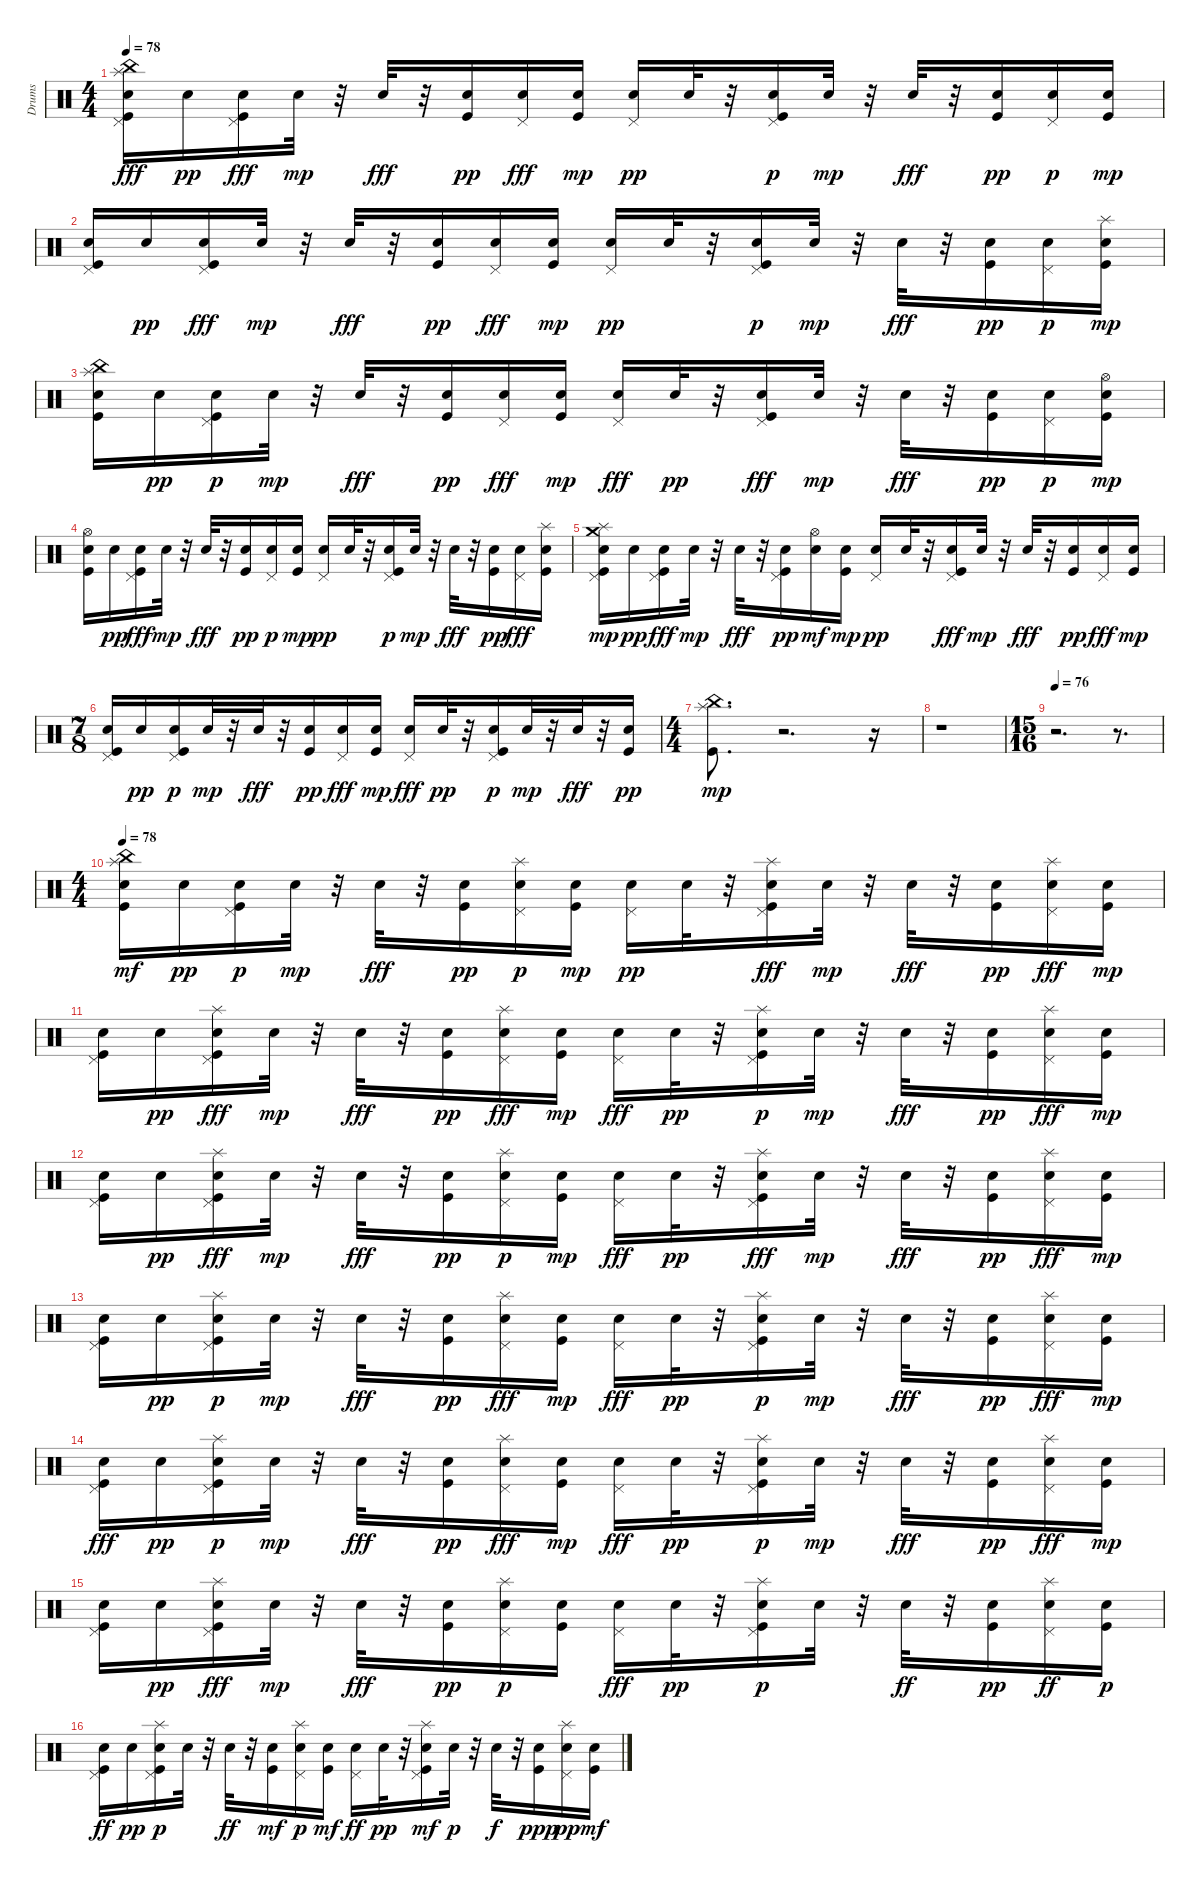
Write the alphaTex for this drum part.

\track ("Drums" "Drums") {instrument percussion}
\staff {score}
\articulation defaults
\ts (4 4)
\tempo 78
\clef neutral
\ks c
("Splash (hit)" "China (hit)" "Kick (hit)" "Snare (hit) 2" "Pedal Hi-Hat (hit)").16{dy fff} "Snare (hit) 2".16{dy pp} ("Kick (hit)" "Snare (hit) 2" "Pedal Hi-Hat (hit)").16{dy fff} "Snare (hit) 2".32{dy mp} r.32 "Snare (hit) 2".32{dy fff} r.32 ("Snare (hit) 2" "Kick (hit)").16{dy pp} ("Snare (hit) 2" "Pedal Hi-Hat (hit)").16{dy fff} ("Snare (hit) 2" "Kick (hit)").16{dy mp} ("Pedal Hi-Hat (hit)" "Snare (hit) 2").16{dy pp} "Snare (hit) 2".32 r.32 ("Pedal Hi-Hat (hit)" "Snare (hit) 2" "Kick (hit)").16{dy p} "Snare (hit) 2".32{dy mp} r.32 "Snare (hit) 2".32{dy fff} r.32 ("Kick (hit)" "Snare (hit) 2").16{dy pp} ("Pedal Hi-Hat (hit)" "Snare (hit) 2").16{dy p} ("Kick (hit)" "Snare (hit) 2").16{dy mp} |
("Pedal Hi-Hat (hit)" "Snare (hit) 2" "Kick (hit)").16 "Snare (hit) 2".16{dy pp} ("Snare (hit) 2" "Pedal Hi-Hat (hit)" "Kick (hit)").16{dy fff} "Snare (hit) 2".32{dy mp} r.32 "Snare (hit) 2".32{dy fff} r.32 ("Kick (hit)" "Snare (hit) 2").16{dy pp} ("Snare (hit) 2" "Pedal Hi-Hat (hit)").16{dy fff} ("Kick (hit)" "Snare (hit) 2").16{dy mp} ("Pedal Hi-Hat (hit)" "Snare (hit) 2").16{dy pp} "Snare (hit) 2".32 r.32 ("Pedal Hi-Hat (hit)" "Snare (hit) 2" "Kick (hit)").16{dy p} "Snare (hit) 2".32{dy mp} r.32 "Snare (hit) 2".32{dy fff} r.32 ("Snare (hit) 2" "Kick (hit)").16{dy pp} ("Pedal Hi-Hat (hit)" "Snare (hit) 2").16{dy p} ("Splash (hit)" "Kick (hit)" "Snare (hit) 2").16{dy mp} |
("Kick (hit)" "Splash (hit)" "Snare (hit) 2" "China (hit)").16 "Snare (hit) 2".16{dy pp} ("Kick (hit)" "Pedal Hi-Hat (hit)" "Snare (hit) 2").16{dy p} "Snare (hit) 2".32{dy mp} r.32 "Snare (hit) 2".32{dy fff} r.32 ("Kick (hit)" "Snare (hit) 2").16{dy pp} ("Snare (hit) 2" "Pedal Hi-Hat (hit)").16{dy fff} ("Kick (hit)" "Snare (hit) 2").16{dy mp} ("Snare (hit) 2" "Pedal Hi-Hat (hit)").16{dy fff} "Snare (hit) 2".32{dy pp} r.32 ("Kick (hit)" "Snare (hit) 2" "Pedal Hi-Hat (hit)").16{dy fff} "Snare (hit) 2".32{dy mp} r.32 "Snare (hit) 2".32{dy fff} r.32 ("Kick (hit)" "Snare (hit) 2").16{dy pp} ("Snare (hit) 2" "Pedal Hi-Hat (hit)").16{dy p} ("Hi-Hat (open)" "Kick (hit)" "Snare (hit) 2").16{dy mp} |
("Hi-Hat (open)" "Snare (hit) 2" "Kick (hit)").16 "Snare (hit) 2".16{dy pp} ("Snare (hit) 2" "Kick (hit)" "Pedal Hi-Hat (hit)").16{dy fff} "Snare (hit) 2".32{dy mp} r.32 "Snare (hit) 2".32{dy fff} r.32 ("Snare (hit) 2" "Kick (hit)").16{dy pp} ("Pedal Hi-Hat (hit)" "Snare (hit) 2").16{dy p} ("Snare (hit) 2" "Kick (hit)").16{dy mp} ("Pedal Hi-Hat (hit)" "Snare (hit) 2").16{dy pp} "Snare (hit) 2".32 r.32 ("Pedal Hi-Hat (hit)" "Kick (hit)" "Snare (hit) 2").16{dy p} "Snare (hit) 2".32{dy mp} r.32 "Snare (hit) 2".32{dy fff} r.32 ("Kick (hit)" "Snare (hit) 2").16{dy pp} ("Snare (hit) 2" "Pedal Hi-Hat (hit)").16{dy fff} ("Kick (hit)" "Snare (hit) 2" "Splash (hit)").16 |
("Kick (hit)" "Pedal Hi-Hat (hit)" "Splash (hit)" "Snare (hit) 2" "Crash medium (hit)").16{dy mp} "Snare (hit) 2".16{dy pp} ("Snare (hit) 2" "Kick (hit)" "Pedal Hi-Hat (hit)").16{dy fff} "Snare (hit) 2".32{dy mp} r.32 "Snare (hit) 2".32{dy fff} r.32 ("Kick (hit)" "Snare (hit) 2" "Pedal Hi-Hat (hit)").16{dy pp} ("Snare (hit) 2" "Hi-Hat (open)").16{dy mf} ("Kick (hit)" "Snare (hit) 2").16{dy mp} ("Pedal Hi-Hat (hit)" "Snare (hit) 2").16{dy pp} "Snare (hit) 2".32 r.32 ("Snare (hit) 2" "Kick (hit)" "Pedal Hi-Hat (hit)").16{dy fff} "Snare (hit) 2".32{dy mp} r.32 "Snare (hit) 2".32{dy fff} r.32 ("Kick (hit)" "Snare (hit) 2").16{dy pp} ("Snare (hit) 2" "Pedal Hi-Hat (hit)").16{dy fff} ("Kick (hit)" "Snare (hit) 2").16{dy mp} |
\ts (7 8)
("Pedal Hi-Hat (hit)" "Kick (hit)" "Snare (hit) 2").16 "Snare (hit) 2".16{dy pp} ("Pedal Hi-Hat (hit)" "Snare (hit) 2" "Kick (hit)").16{dy p} "Snare (hit) 2".32{dy mp} r.32 "Snare (hit) 2".32{dy fff} r.32 ("Kick (hit)" "Snare (hit) 2").16{dy pp} ("Snare (hit) 2" "Pedal Hi-Hat (hit)").16{dy fff} ("Kick (hit)" "Snare (hit) 2").16{dy mp} ("Snare (hit) 2" "Pedal Hi-Hat (hit)").16{dy fff} "Snare (hit) 2".32{dy pp} r.32 ("Kick (hit)" "Pedal Hi-Hat (hit)" "Snare (hit) 2").16{dy p} "Snare (hit) 2".32{dy mp} r.32 "Snare (hit) 2".32{dy fff} r.32 ("Snare (hit) 2" "Kick (hit)").16{dy pp} |
\ts (4 4)
("Splash (hit)" "Kick (hit)" "China (hit)").8{d dy mp} r.2{d} r.16 |
r.1 |
\ts (15 16)
\tempo 76
r.2{d} r.8{d} |
\ts (4 4)
\tempo 78
("China (hit)" "Snare (hit) 2" "Kick (hit)" "Splash (hit)").16{dy mf} "Snare (hit) 2".16{dy pp} ("Pedal Hi-Hat (hit)" "Kick (hit)" "Snare (hit) 2").16{dy p} "Snare (hit) 2".32{dy mp} r.32 "Snare (hit) 2".32{dy fff} r.32 ("Kick (hit)" "Snare (hit) 2").16{dy pp} ("Splash (hit)" "Pedal Hi-Hat (hit)" "Snare (hit) 2").16{dy p} ("Snare (hit) 2" "Kick (hit)").16{dy mp} ("Pedal Hi-Hat (hit)" "Snare (hit) 2").16{dy pp} "Snare (hit) 2".32 r.32 ("Splash (hit)" "Snare (hit) 2" "Pedal Hi-Hat (hit)" "Kick (hit)").16{dy fff} "Snare (hit) 2".32{dy mp} r.32 "Snare (hit) 2".32{dy fff} r.32 ("Snare (hit) 2" "Kick (hit)").16{dy pp} ("Splash (hit)" "Snare (hit) 2" "Pedal Hi-Hat (hit)").16{dy fff} ("Kick (hit)" "Snare (hit) 2").16{dy mp} |
("Kick (hit)" "Pedal Hi-Hat (hit)" "Snare (hit) 2").16 "Snare (hit) 2".16{dy pp} ("Splash (hit)" "Kick (hit)" "Snare (hit) 2" "Pedal Hi-Hat (hit)").16{dy fff} "Snare (hit) 2".32{dy mp} r.32 "Snare (hit) 2".32{dy fff} r.32 ("Kick (hit)" "Snare (hit) 2").16{dy pp} ("Splash (hit)" "Snare (hit) 2" "Pedal Hi-Hat (hit)").16{dy fff} ("Kick (hit)" "Snare (hit) 2").16{dy mp} ("Snare (hit) 2" "Pedal Hi-Hat (hit)").16{dy fff} "Snare (hit) 2".32{dy pp} r.32 ("Splash (hit)" "Pedal Hi-Hat (hit)" "Snare (hit) 2" "Kick (hit)").16{dy p} "Snare (hit) 2".32{dy mp} r.32 "Snare (hit) 2".32{dy fff} r.32 ("Kick (hit)" "Snare (hit) 2").16{dy pp} ("Splash (hit)" "Snare (hit) 2" "Pedal Hi-Hat (hit)").16{dy fff} ("Kick (hit)" "Snare (hit) 2").16{dy mp} |
("Pedal Hi-Hat (hit)" "Snare (hit) 2" "Kick (hit)").16 "Snare (hit) 2".16{dy pp} ("Splash (hit)" "Snare (hit) 2" "Pedal Hi-Hat (hit)" "Kick (hit)").16{dy fff} "Snare (hit) 2".32{dy mp} r.32 "Snare (hit) 2".32{dy fff} r.32 ("Kick (hit)" "Snare (hit) 2").16{dy pp} ("Splash (hit)" "Pedal Hi-Hat (hit)" "Snare (hit) 2").16{dy p} ("Kick (hit)" "Snare (hit) 2").16{dy mp} ("Snare (hit) 2" "Pedal Hi-Hat (hit)").16{dy fff} "Snare (hit) 2".32{dy pp} r.32 ("Splash (hit)" "Snare (hit) 2" "Pedal Hi-Hat (hit)" "Kick (hit)").16{dy fff} "Snare (hit) 2".32{dy mp} r.32 "Snare (hit) 2".32{dy fff} r.32 ("Kick (hit)" "Snare (hit) 2").16{dy pp} ("Splash (hit)" "Snare (hit) 2" "Pedal Hi-Hat (hit)").16{dy fff} ("Kick (hit)" "Snare (hit) 2").16{dy mp} |
("Pedal Hi-Hat (hit)" "Kick (hit)" "Snare (hit) 2").16 "Snare (hit) 2".16{dy pp} ("Splash (hit)" "Pedal Hi-Hat (hit)" "Snare (hit) 2" "Kick (hit)").16{dy p} "Snare (hit) 2".32{dy mp} r.32 "Snare (hit) 2".32{dy fff} r.32 ("Kick (hit)" "Snare (hit) 2").16{dy pp} ("Splash (hit)" "Snare (hit) 2" "Pedal Hi-Hat (hit)").16{dy fff} ("Snare (hit) 2" "Kick (hit)").16{dy mp} ("Snare (hit) 2" "Pedal Hi-Hat (hit)").16{dy fff} "Snare (hit) 2".32{dy pp} r.32 ("Splash (hit)" "Kick (hit)" "Pedal Hi-Hat (hit)" "Snare (hit) 2").16{dy p} "Snare (hit) 2".32{dy mp} r.32 "Snare (hit) 2".32{dy fff} r.32 ("Kick (hit)" "Snare (hit) 2").16{dy pp} ("Splash (hit)" "Snare (hit) 2" "Pedal Hi-Hat (hit)").16{dy fff} ("Kick (hit)" "Snare (hit) 2").16{dy mp} |
("Kick (hit)" "Snare (hit) 2" "Pedal Hi-Hat (hit)").16{dy fff} "Snare (hit) 2".16{dy pp} ("Splash (hit)" "Kick (hit)" "Pedal Hi-Hat (hit)" "Snare (hit) 2").16{dy p} "Snare (hit) 2".32{dy mp} r.32 "Snare (hit) 2".32{dy fff} r.32 ("Kick (hit)" "Snare (hit) 2").16{dy pp} ("Splash (hit)" "Snare (hit) 2" "Pedal Hi-Hat (hit)").16{dy fff} ("Snare (hit) 2" "Kick (hit)").16{dy mp} ("Snare (hit) 2" "Pedal Hi-Hat (hit)").16{dy fff} "Snare (hit) 2".32{dy pp} r.32 ("Splash (hit)" "Kick (hit)" "Pedal Hi-Hat (hit)" "Snare (hit) 2").16{dy p} "Snare (hit) 2".32{dy mp} r.32 "Snare (hit) 2".32{dy fff} r.32 ("Snare (hit) 2" "Kick (hit)").16{dy pp} ("Splash (hit)" "Snare (hit) 2" "Pedal Hi-Hat (hit)").16{dy fff} ("Snare (hit) 2" "Kick (hit)").16{dy mp} |
("Kick (hit)" "Pedal Hi-Hat (hit)" "Snare (hit) 2").16 "Snare (hit) 2".16{dy pp} ("Splash (hit)" "Kick (hit)" "Snare (hit) 2" "Pedal Hi-Hat (hit)").16{dy fff} "Snare (hit) 2".32{dy mp} r.32 "Snare (hit) 2".32{dy fff} r.32 ("Snare (hit) 2" "Kick (hit)").16{dy pp} ("Splash (hit)" "Pedal Hi-Hat (hit)" "Snare (hit) 2").16{dy p} ("Kick (hit)" "Snare (hit) 2").16 ("Snare (hit) 2" "Pedal Hi-Hat (hit)").16{dy fff} "Snare (hit) 2".32{dy pp} r.32 ("Splash (hit)" "Pedal Hi-Hat (hit)" "Kick (hit)" "Snare (hit) 2").16{dy p} "Snare (hit) 2".32 r.32 "Snare (hit) 2".32{dy ff} r.32 ("Kick (hit)" "Snare (hit) 2").16{dy pp} ("Splash (hit)" "Snare (hit) 2" "Pedal Hi-Hat (hit)").16{dy ff} ("Kick (hit)" "Snare (hit) 2").16{dy p} |
("Snare (hit) 2" "Pedal Hi-Hat (hit)" "Kick (hit)").16{dy ff} "Snare (hit) 2".16{dy pp} ("Splash (hit)" "Kick (hit)" "Pedal Hi-Hat (hit)" "Snare (hit) 2").16{dy p} "Snare (hit) 2".32 r.32 "Snare (hit) 2".32{dy ff} r.32 ("Snare (hit) 2" "Kick (hit)").16{dy mf} ("Splash (hit)" "Pedal Hi-Hat (hit)" "Snare (hit) 2").16{dy p} ("Snare (hit) 2" "Kick (hit)").16{dy mf} ("Snare (hit) 2" "Pedal Hi-Hat (hit)").16{dy ff} "Snare (hit) 2".32{dy pp} r.32 ("Splash (hit)" "Snare (hit) 2" "Pedal Hi-Hat (hit)" "Kick (hit)").16{dy mf} "Snare (hit) 2".32{dy p} r.32 "Snare (hit) 2".32{dy f} r.32 ("Kick (hit)" "Snare (hit) 2").16{dy ppp} ("Splash (hit)" "Snare (hit) 2" "Pedal Hi-Hat (hit)").16{dy pp} ("Snare (hit) 2" "Kick (hit)").16{dy mf}
